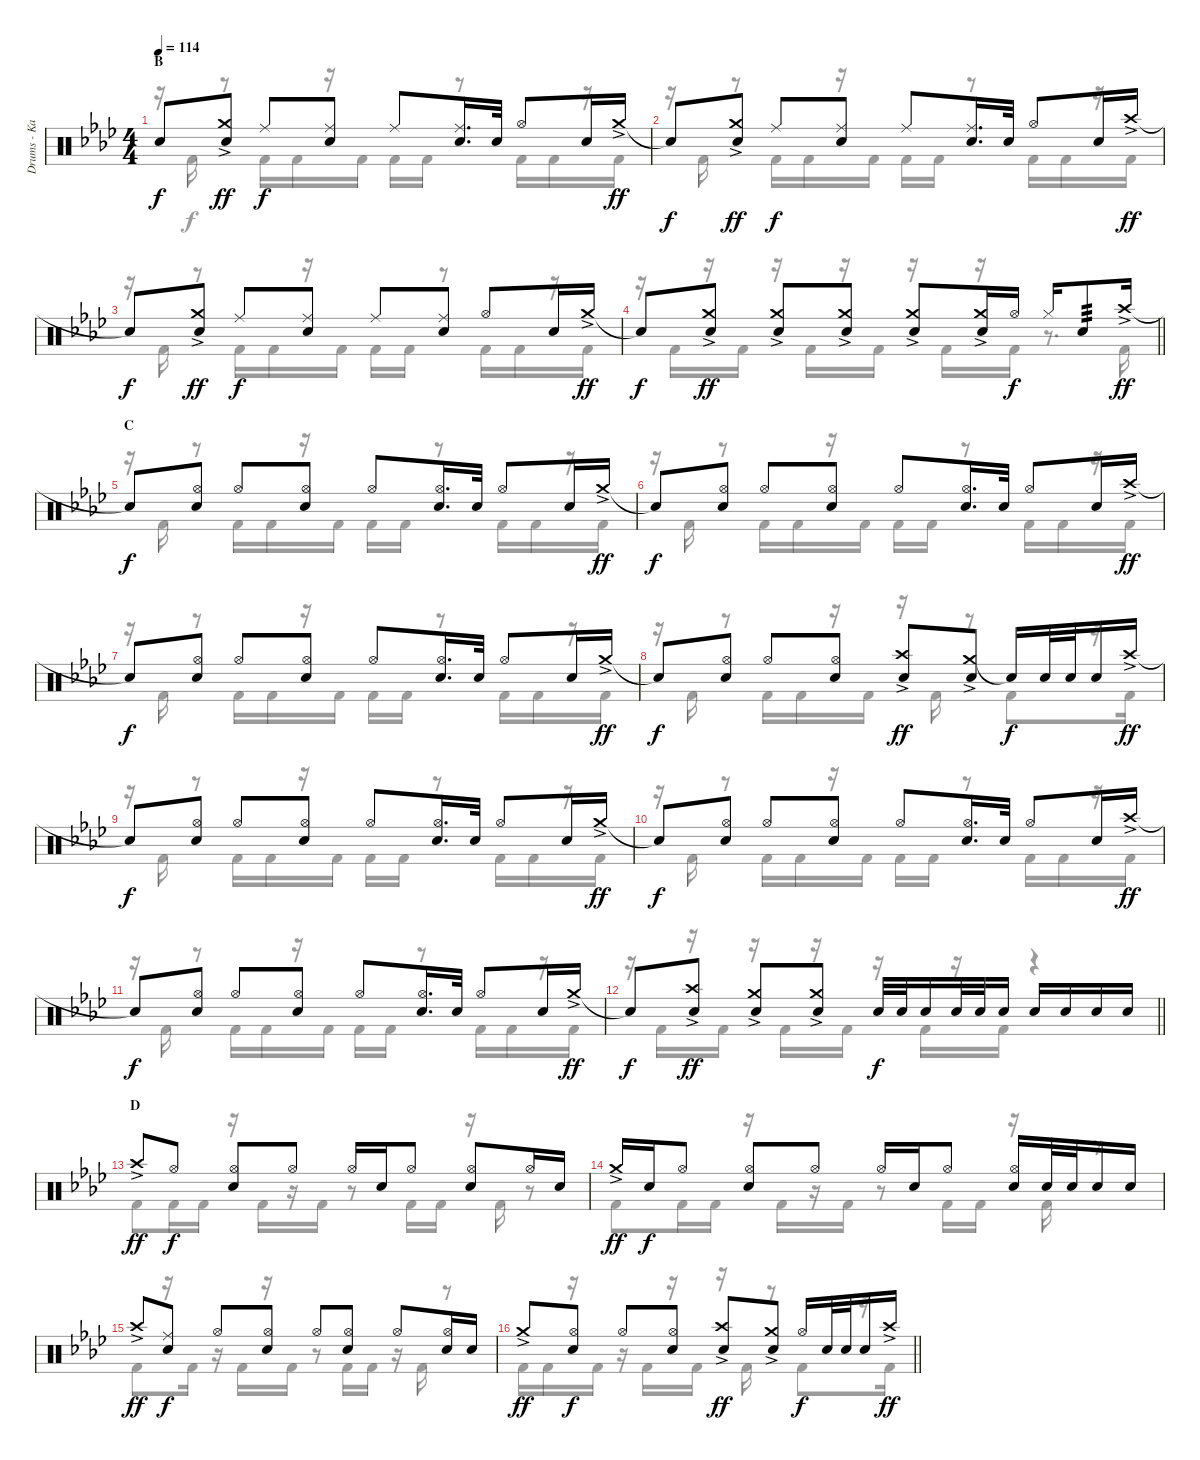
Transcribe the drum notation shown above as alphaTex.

\track ("Drums - Kai" "Drums - Ka") {instrument percussion}
\staff {score}
\articulation defaults
\voice
\ts (4 4)
\section ("" "B")
\tempo 114
\clef neutral
\ks ab "Snare (hit)"{t}.8{dy f}
("Crash medium (hit)"{ac} "Snare (hit) 2").8{dy ff} "Ride (middle)".8{dy f} ("Ride (middle)" "Snare (hit) 2").8 "Ride (middle)".8 ("Ride (middle)" "Snare (hit) 2").16{d} "Snare (hit) 2".32 "Hi-Hat (open)".8 "Snare (hit) 2".16 "Crash medium (hit)"{ac}.16{dy ff} |
"Snare (hit)"{t}.8{dy f} ("Crash medium (hit)"{ac} "Snare (hit) 2").8{dy ff} "Ride (middle)".8{dy f} ("Ride (middle)" "Snare (hit) 2").8 "Ride (middle)".8 ("Ride (middle)" "Snare (hit) 2").16{d} "Snare (hit) 2".32 "Hi-Hat (open)".8 "Snare (hit) 2".16 "Crash high (hit)"{ac}.16{dy ff} |
"Snare (hit)"{t}.8{dy f} ("Crash medium (hit)"{ac} "Snare (hit) 2").8{dy ff} "Ride (middle)".8{dy f} ("Ride (middle)" "Snare (hit) 2").8 "Ride (middle)".8 ("Ride (middle)" "Snare (hit) 2").8 "Hi-Hat (open)".8 "Snare (hit) 2".16 "Crash medium (hit)"{ac}.16{dy ff} |
\barLineRight lightlight "Snare (hit)"{t}.8{dy f}
("Crash medium (hit)"{ac} "Snare (hit) 2").8{dy ff} ("Crash medium (hit)"{ac} "Snare (hit) 2").8 ("Crash medium (hit)"{ac} "Snare (hit) 2").8 ("Crash medium (hit)"{ac} "Snare (hit) 2").8 ("Crash medium (hit)"{ac} "Snare (hit) 2").16 "Hi-Hat (open)".16{dy f} "Hi-Hat (closed)".16 "Snare (hit) 2".8{tp 3} "Crash high (hit)"{ac}.16{dy ff} |
\section ("" "C")
"Snare (hit)"{t}.8{dy f} ("Hi-Hat (open)" "Snare (hit) 2").8 "Hi-Hat (open)".8 ("Hi-Hat (open)" "Snare (hit) 2").8 "Hi-Hat (open)".8 ("Hi-Hat (open)" "Snare (hit) 2").16{d} "Snare (hit) 2".32 "Hi-Hat (open)".8 "Snare (hit) 2".16 "Crash medium (hit)"{ac}.16{dy ff} |
"Snare (hit)"{t}.8{dy f} ("Hi-Hat (open)" "Snare (hit) 2").8 "Hi-Hat (open)".8 ("Hi-Hat (open)" "Snare (hit) 2").8 "Hi-Hat (open)".8 ("Hi-Hat (open)" "Snare (hit) 2").16{d} "Snare (hit) 2".32 "Hi-Hat (open)".8 "Snare (hit) 2".16 "Crash high (hit)"{ac}.16{dy ff} |
"Snare (hit)"{t}.8{dy f} ("Hi-Hat (open)" "Snare (hit) 2").8 "Hi-Hat (open)".8 ("Hi-Hat (open)" "Snare (hit) 2").8 "Hi-Hat (open)".8 ("Hi-Hat (open)" "Snare (hit) 2").16{d} "Snare (hit) 2".32 "Hi-Hat (open)".8 "Snare (hit) 2".16 "Crash medium (hit)"{ac}.16{dy ff} |
"Snare (hit)"{t}.8{dy f} ("Hi-Hat (open)" "Snare (hit) 2").8 "Hi-Hat (open)".8 ("Hi-Hat (open)" "Snare (hit) 2").8 ("Crash high (hit)"{ac} "Snare (hit) 2").8{dy ff} ("Crash medium (hit)"{ac} "Snare (hit) 2").8 "Snare (hit)"{t}.16{dy f} "Snare (hit) 2".32 "Snare (hit) 2".32 "Snare (hit) 2".16 "Crash high (hit)"{ac}.16{dy ff} |
"Snare (hit)"{t}.8{dy f} ("Hi-Hat (open)" "Snare (hit) 2").8 "Hi-Hat (open)".8 ("Hi-Hat (open)" "Snare (hit) 2").8 "Hi-Hat (open)".8 ("Hi-Hat (open)" "Snare (hit) 2").16{d} "Snare (hit) 2".32 "Hi-Hat (open)".8 "Snare (hit) 2".16 "Crash medium (hit)"{ac}.16{dy ff} |
"Snare (hit)"{t}.8{dy f} ("Hi-Hat (open)" "Snare (hit) 2").8 "Hi-Hat (open)".8 ("Hi-Hat (open)" "Snare (hit) 2").8 "Hi-Hat (open)".8 ("Hi-Hat (open)" "Snare (hit) 2").16{d} "Snare (hit) 2".32 "Hi-Hat (open)".8 "Snare (hit) 2".16 "Crash high (hit)"{ac}.16{dy ff} |
"Snare (hit)"{t}.8{dy f} ("Hi-Hat (open)" "Snare (hit) 2").8 "Hi-Hat (open)".8 ("Hi-Hat (open)" "Snare (hit) 2").8 "Hi-Hat (open)".8 ("Hi-Hat (open)" "Snare (hit) 2").16{d} "Snare (hit) 2".32 "Hi-Hat (open)".8 "Snare (hit) 2".16 "Crash medium (hit)"{ac}.16{dy ff} |
\barLineRight lightlight "Snare (hit)"{t}.8{dy f}
("Crash high (hit)"{ac} "Snare (hit) 2").8{dy ff} ("Crash medium (hit)"{ac} "Snare (hit) 2").8 ("Crash medium (hit)"{ac} "Snare (hit) 2").8 "Snare (hit) 2".32{dy f} "Snare (hit) 2".32 "Snare (hit) 2".16 "Snare (hit) 2".32 "Snare (hit) 2".32 "Snare (hit) 2".16 "Snare (hit) 2".16 "Snare (hit) 2".16 "Snare (hit) 2".16 "Snare (hit) 2".16 |
\section ("" "D")
"Crash high (hit)"{ac}.8{dy ff} "Hi-Hat (open)".8{dy f} ("Hi-Hat (open)" "Snare (hit) 2").8 "Hi-Hat (open)".8 "Hi-Hat (open)".16 "Snare (hit) 2".16 "Hi-Hat (open)".8 ("Hi-Hat (open)" "Snare (hit) 2").8 "Hi-Hat (open)".16 "Snare (hit) 2".16 |
"Crash medium (hit)"{ac}.16{dy ff} "Snare (hit) 2".16{dy f} "Hi-Hat (open)".8 ("Hi-Hat (open)" "Snare (hit) 2").8 "Hi-Hat (open)".8 "Hi-Hat (open)".16 "Snare (hit) 2".16 "Hi-Hat (open)".8 ("Hi-Hat (open)" "Snare (hit) 2").16 "Snare (hit) 2".32 "Snare (hit) 2".32 "Snare (hit) 2".16 "Snare (hit) 2".16 |
"Crash high (hit)"{ac}.8{dy ff} ("Ride (middle)" "Snare (hit) 2").8{dy f} "Hi-Hat (open)".8 ("Hi-Hat (open)" "Snare (hit) 2").8 "Hi-Hat (open)".8 ("Hi-Hat (open)" "Snare (hit) 2").8 "Hi-Hat (open)".8 ("Hi-Hat (open)" "Snare (hit) 2").16 "Snare (hit) 2".16 |
\barLineRight lightlight "Crash medium (hit)"{ac}.8{dy ff}
("Hi-Hat (open)" "Snare (hit) 2").8{dy f} "Hi-Hat (open)".8 ("Hi-Hat (open)" "Snare (hit) 2").8 ("Crash high (hit)"{ac} "Snare (hit) 2").8{dy ff} ("Crash medium (hit)"{ac} "Snare (hit) 2").8 "Hi-Hat (open)".16{dy f} "Snare (hit) 2".32 "Snare (hit) 2".32 "Snare (hit) 2".16 "Crash high (hit)"{ac}.16{dy ff}
\voice
\clef neutral
\ottava regular
\simile none
\ks ab
r.16{dy f} "Kick (hit) 2".16 r.8 "Kick (hit) 2".16 "Kick (hit) 2".16 r.16 "Kick (hit) 2".16 "Kick (hit) 2".16 "Kick (hit) 2".16 r.8 "Kick (hit) 2".16 "Kick (hit) 2".16 r.16 "Kick (hit) 2".16 |
r.16 "Kick (hit) 2".16 r.8 "Kick (hit) 2".16 "Kick (hit) 2".16 r.16 "Kick (hit) 2".16 "Kick (hit) 2".16 "Kick (hit) 2".16 r.8 "Kick (hit) 2".16 "Kick (hit) 2".16 r.16 "Kick (hit) 2".16 |
r.16 "Kick (hit) 2".16 r.8 "Kick (hit) 2".16 "Kick (hit) 2".16 r.16 "Kick (hit) 2".16 "Kick (hit) 2".16 "Kick (hit) 2".16 r.8 "Kick (hit) 2".16 "Kick (hit) 2".16 r.16 "Kick (hit) 2".16 |
\barLineRight lightlight
r.16 "Kick (hit) 2".16 r.16 "Kick (hit) 2".16 r.16 "Kick (hit) 2".16 r.16 "Kick (hit) 2".16 r.16 "Kick (hit) 2".16 r.16 "Kick (hit) 2".16 r.8{d} "Kick (hit) 2".16 |
r.16 "Kick (hit) 2".16 r.8 "Kick (hit) 2".16 "Kick (hit) 2".16 r.16 "Kick (hit) 2".16 "Kick (hit) 2".16 "Kick (hit) 2".16 r.8 "Kick (hit) 2".16 "Kick (hit) 2".16 r.16 "Kick (hit) 2".16 |
r.16 "Kick (hit) 2".16 r.8 "Kick (hit) 2".16 "Kick (hit) 2".16 r.16 "Kick (hit) 2".16 "Kick (hit) 2".16 "Kick (hit) 2".16 r.8 "Kick (hit) 2".16 "Kick (hit) 2".16 r.16 "Kick (hit) 2".16 |
r.16 "Kick (hit) 2".16 r.8 "Kick (hit) 2".16 "Kick (hit) 2".16 r.16 "Kick (hit) 2".16 "Kick (hit) 2".16 "Kick (hit) 2".16 r.8 "Kick (hit) 2".16 "Kick (hit) 2".16 r.16 "Kick (hit) 2".16 |
r.16 "Kick (hit) 2".16 r.8 "Kick (hit) 2".16 "Kick (hit) 2".16 r.16 "Kick (hit) 2".16 r.16 "Kick (hit) 2".16 r.8 "Kick (hit) 2".8 r.16 "Kick (hit) 2".16 |
r.16 "Kick (hit) 2".16 r.8 "Kick (hit) 2".16 "Kick (hit) 2".16 r.16 "Kick (hit) 2".16 "Kick (hit) 2".16 "Kick (hit) 2".16 r.8 "Kick (hit) 2".16 "Kick (hit) 2".16 r.16 "Kick (hit) 2".16 |
r.16 "Kick (hit) 2".16 r.8 "Kick (hit) 2".16 "Kick (hit) 2".16 r.16 "Kick (hit) 2".16 "Kick (hit) 2".16 "Kick (hit) 2".16 r.8 "Kick (hit) 2".16 "Kick (hit) 2".16 r.16 "Kick (hit) 2".16 |
r.16 "Kick (hit) 2".16 r.8 "Kick (hit) 2".16 "Kick (hit) 2".16 r.16 "Kick (hit) 2".16 "Kick (hit) 2".16 "Kick (hit) 2".16 r.8 "Kick (hit) 2".16 "Kick (hit) 2".16 r.16 "Kick (hit) 2".16 |
\barLineRight lightlight
r.16 "Kick (hit) 2".16 r.16 "Kick (hit) 2".16 r.16 "Kick (hit) 2".16 r.16 "Kick (hit) 2".16 r.16 "Kick (hit) 2".16 r.16 "Kick (hit) 2".16 r.4 |
"Kick (hit) 2".8 "Kick (hit) 2".16 "Kick (hit) 2".16 r.16 "Kick (hit) 2".16 r.16 "Kick (hit) 2".16 r.8 "Kick (hit) 2".16 "Kick (hit) 2".16 r.16 "Kick (hit) 2".16 r.8 |
"Kick (hit) 2".8 "Kick (hit) 2".16 "Kick (hit) 2".16 r.16 "Kick (hit) 2".16 r.16 "Kick (hit) 2".16 r.8 "Kick (hit) 2".16 "Kick (hit) 2".16 r.16 "Kick (hit) 2".16 r.8 |
"Kick (hit) 2".8 r.16 "Kick (hit) 2".16 r.16 "Kick (hit) 2".16 r.16 "Kick (hit) 2".16 r.8 "Kick (hit) 2".16 "Kick (hit) 2".16 r.16 "Kick (hit) 2".16 r.8 |
\barLineRight lightlight "Kick (hit) 2".16 "Kick (hit) 2".16
r.16 "Kick (hit) 2".16 r.16 "Kick (hit) 2".16 r.16 "Kick (hit) 2".16 r.16 "Kick (hit) 2".16 r.8 "Kick (hit) 2".8 r.16 "Kick (hit) 2".16
